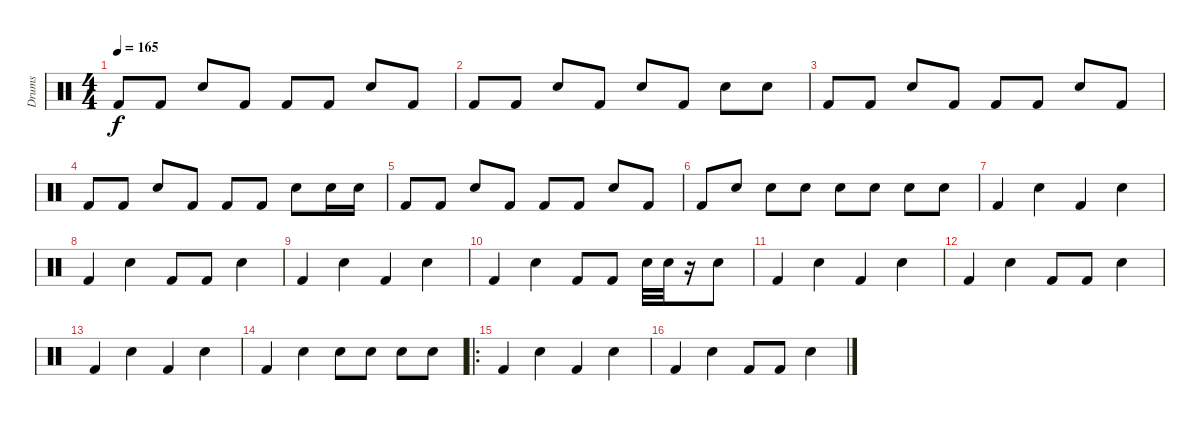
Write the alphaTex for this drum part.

\track ("Drums" "Drums") {instrument percussion}
\staff {score}
\articulation defaults
\ts (4 4)
\tempo 165
\clef neutral
\ks c "Kick (hit) 2".8{dy f} "Kick (hit) 2".8 "Snare (hit) 2".8 "Kick (hit) 2".8 "Kick (hit) 2".8 "Kick (hit) 2".8 "Snare (hit) 2".8 "Kick (hit) 2".8
|
"Kick (hit) 2".8 "Kick (hit) 2".8 "Snare (hit) 2".8 "Kick (hit) 2".8 "Snare (hit) 2".8 "Kick (hit) 2".8 "Snare (hit) 2".8 "Snare (hit) 2".8 |
"Kick (hit) 2".8 "Kick (hit) 2".8 "Snare (hit) 2".8 "Kick (hit) 2".8 "Kick (hit) 2".8 "Kick (hit) 2".8 "Snare (hit) 2".8 "Kick (hit) 2".8 |
"Kick (hit) 2".8 "Kick (hit) 2".8 "Snare (hit) 2".8 "Kick (hit) 2".8 "Kick (hit) 2".8 "Kick (hit) 2".8 "Snare (hit) 2".8 "Snare (hit) 2".16 "Snare (hit) 2".16 |
"Kick (hit) 2".8 "Kick (hit) 2".8 "Snare (hit) 2".8 "Kick (hit) 2".8 "Kick (hit) 2".8 "Kick (hit) 2".8 "Snare (hit) 2".8 "Kick (hit) 2".8 |
"Kick (hit) 2".8 "Snare (hit) 2".8 "Snare (hit) 2".8 "Snare (hit) 2".8 "Snare (hit) 2".8 "Snare (hit) 2".8 "Snare (hit) 2".8 "Snare (hit) 2".8 |
"Kick (hit) 2".4 "Snare (hit) 2".4 "Kick (hit) 2".4 "Snare (hit) 2".4 |
"Kick (hit) 2".4 "Snare (hit) 2".4 "Kick (hit) 2".8 "Kick (hit) 2".8 "Snare (hit) 2".4 |
"Kick (hit) 2".4 "Snare (hit) 2".4 "Kick (hit) 2".4 "Snare (hit) 2".4 |
"Kick (hit) 2".4 "Snare (hit) 2".4 "Kick (hit) 2".8 "Kick (hit) 2".8 "Snare (hit) 2".32 "Snare (hit) 2".32 r.16 "Snare (hit) 2".8 |
"Kick (hit) 2".4 "Snare (hit) 2".4 "Kick (hit) 2".4 "Snare (hit) 2".4 |
"Kick (hit) 2".4 "Snare (hit) 2".4 "Kick (hit) 2".8 "Kick (hit) 2".8 "Snare (hit) 2".4 |
"Kick (hit) 2".4 "Snare (hit) 2".4 "Kick (hit) 2".4 "Snare (hit) 2".4 |
"Kick (hit) 2".4 "Snare (hit) 2".4 "Snare (hit) 2".8 "Snare (hit) 2".8 "Snare (hit) 2".8 "Snare (hit) 2".8 |
\ro "Kick (hit) 2".4 "Snare (hit) 2".4 "Kick (hit) 2".4 "Snare (hit) 2".4
|
"Kick (hit) 2".4 "Snare (hit) 2".4 "Kick (hit) 2".8 "Kick (hit) 2".8 "Snare (hit) 2".4
